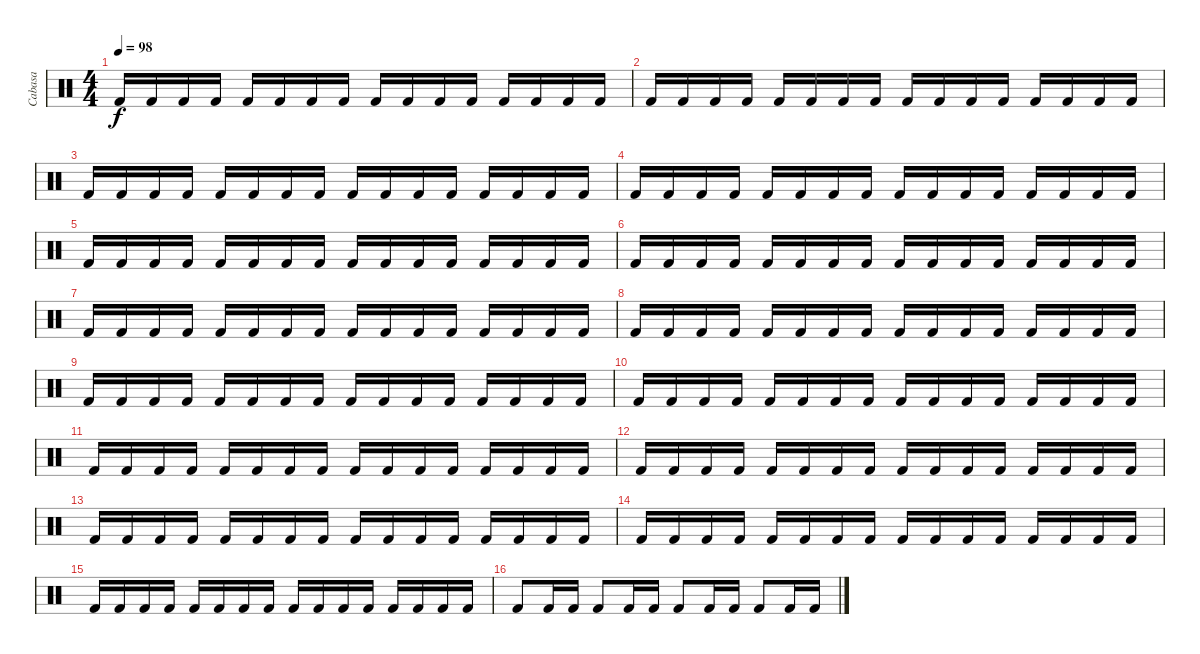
\track ("Cabasa" "Cabasa") {instrument percussion}
\staff {score}
\articulation defaults
\ts (4 4)
\tempo 98
\clef neutral
\ks c "Kick (hit) 2".16{dy f} "Kick (hit) 2".16 "Kick (hit) 2".16 "Kick (hit) 2".16 "Kick (hit) 2".16 "Kick (hit) 2".16 "Kick (hit) 2".16 "Kick (hit) 2".16 "Kick (hit) 2".16 "Kick (hit) 2".16 "Kick (hit) 2".16 "Kick (hit) 2".16 "Kick (hit) 2".16 "Kick (hit) 2".16 "Kick (hit) 2".16 "Kick (hit) 2".16
|
"Kick (hit) 2".16 "Kick (hit) 2".16 "Kick (hit) 2".16 "Kick (hit) 2".16 "Kick (hit) 2".16 "Kick (hit) 2".16 "Kick (hit) 2".16 "Kick (hit) 2".16 "Kick (hit) 2".16 "Kick (hit) 2".16 "Kick (hit) 2".16 "Kick (hit) 2".16 "Kick (hit) 2".16 "Kick (hit) 2".16 "Kick (hit) 2".16 "Kick (hit) 2".16 |
"Kick (hit) 2".16 "Kick (hit) 2".16 "Kick (hit) 2".16 "Kick (hit) 2".16 "Kick (hit) 2".16 "Kick (hit) 2".16 "Kick (hit) 2".16 "Kick (hit) 2".16 "Kick (hit) 2".16 "Kick (hit) 2".16 "Kick (hit) 2".16 "Kick (hit) 2".16 "Kick (hit) 2".16 "Kick (hit) 2".16 "Kick (hit) 2".16 "Kick (hit) 2".16 |
"Kick (hit) 2".16 "Kick (hit) 2".16 "Kick (hit) 2".16 "Kick (hit) 2".16 "Kick (hit) 2".16 "Kick (hit) 2".16 "Kick (hit) 2".16 "Kick (hit) 2".16 "Kick (hit) 2".16 "Kick (hit) 2".16 "Kick (hit) 2".16 "Kick (hit) 2".16 "Kick (hit) 2".16 "Kick (hit) 2".16 "Kick (hit) 2".16 "Kick (hit) 2".16 |
"Kick (hit) 2".16 "Kick (hit) 2".16 "Kick (hit) 2".16 "Kick (hit) 2".16 "Kick (hit) 2".16 "Kick (hit) 2".16 "Kick (hit) 2".16 "Kick (hit) 2".16 "Kick (hit) 2".16 "Kick (hit) 2".16 "Kick (hit) 2".16 "Kick (hit) 2".16 "Kick (hit) 2".16 "Kick (hit) 2".16 "Kick (hit) 2".16 "Kick (hit) 2".16 |
"Kick (hit) 2".16 "Kick (hit) 2".16 "Kick (hit) 2".16 "Kick (hit) 2".16 "Kick (hit) 2".16 "Kick (hit) 2".16 "Kick (hit) 2".16 "Kick (hit) 2".16 "Kick (hit) 2".16 "Kick (hit) 2".16 "Kick (hit) 2".16 "Kick (hit) 2".16 "Kick (hit) 2".16 "Kick (hit) 2".16 "Kick (hit) 2".16 "Kick (hit) 2".16 |
"Kick (hit) 2".16 "Kick (hit) 2".16 "Kick (hit) 2".16 "Kick (hit) 2".16 "Kick (hit) 2".16 "Kick (hit) 2".16 "Kick (hit) 2".16 "Kick (hit) 2".16 "Kick (hit) 2".16 "Kick (hit) 2".16 "Kick (hit) 2".16 "Kick (hit) 2".16 "Kick (hit) 2".16 "Kick (hit) 2".16 "Kick (hit) 2".16 "Kick (hit) 2".16 |
"Kick (hit) 2".16 "Kick (hit) 2".16 "Kick (hit) 2".16 "Kick (hit) 2".16 "Kick (hit) 2".16 "Kick (hit) 2".16 "Kick (hit) 2".16 "Kick (hit) 2".16 "Kick (hit) 2".16 "Kick (hit) 2".16 "Kick (hit) 2".16 "Kick (hit) 2".16 "Kick (hit) 2".16 "Kick (hit) 2".16 "Kick (hit) 2".16 "Kick (hit) 2".16 |
"Kick (hit) 2".16 "Kick (hit) 2".16 "Kick (hit) 2".16 "Kick (hit) 2".16 "Kick (hit) 2".16 "Kick (hit) 2".16 "Kick (hit) 2".16 "Kick (hit) 2".16 "Kick (hit) 2".16 "Kick (hit) 2".16 "Kick (hit) 2".16 "Kick (hit) 2".16 "Kick (hit) 2".16 "Kick (hit) 2".16 "Kick (hit) 2".16 "Kick (hit) 2".16 |
"Kick (hit) 2".16 "Kick (hit) 2".16 "Kick (hit) 2".16 "Kick (hit) 2".16 "Kick (hit) 2".16 "Kick (hit) 2".16 "Kick (hit) 2".16 "Kick (hit) 2".16 "Kick (hit) 2".16 "Kick (hit) 2".16 "Kick (hit) 2".16 "Kick (hit) 2".16 "Kick (hit) 2".16 "Kick (hit) 2".16 "Kick (hit) 2".16 "Kick (hit) 2".16 |
"Kick (hit) 2".16 "Kick (hit) 2".16 "Kick (hit) 2".16 "Kick (hit) 2".16 "Kick (hit) 2".16 "Kick (hit) 2".16 "Kick (hit) 2".16 "Kick (hit) 2".16 "Kick (hit) 2".16 "Kick (hit) 2".16 "Kick (hit) 2".16 "Kick (hit) 2".16 "Kick (hit) 2".16 "Kick (hit) 2".16 "Kick (hit) 2".16 "Kick (hit) 2".16 |
"Kick (hit) 2".16 "Kick (hit) 2".16 "Kick (hit) 2".16 "Kick (hit) 2".16 "Kick (hit) 2".16 "Kick (hit) 2".16 "Kick (hit) 2".16 "Kick (hit) 2".16 "Kick (hit) 2".16 "Kick (hit) 2".16 "Kick (hit) 2".16 "Kick (hit) 2".16 "Kick (hit) 2".16 "Kick (hit) 2".16 "Kick (hit) 2".16 "Kick (hit) 2".16 |
"Kick (hit) 2".16 "Kick (hit) 2".16 "Kick (hit) 2".16 "Kick (hit) 2".16 "Kick (hit) 2".16 "Kick (hit) 2".16 "Kick (hit) 2".16 "Kick (hit) 2".16 "Kick (hit) 2".16 "Kick (hit) 2".16 "Kick (hit) 2".16 "Kick (hit) 2".16 "Kick (hit) 2".16 "Kick (hit) 2".16 "Kick (hit) 2".16 "Kick (hit) 2".16 |
"Kick (hit) 2".16 "Kick (hit) 2".16 "Kick (hit) 2".16 "Kick (hit) 2".16 "Kick (hit) 2".16 "Kick (hit) 2".16 "Kick (hit) 2".16 "Kick (hit) 2".16 "Kick (hit) 2".16 "Kick (hit) 2".16 "Kick (hit) 2".16 "Kick (hit) 2".16 "Kick (hit) 2".16 "Kick (hit) 2".16 "Kick (hit) 2".16 "Kick (hit) 2".16 |
"Kick (hit) 2".16 "Kick (hit) 2".16 "Kick (hit) 2".16 "Kick (hit) 2".16 "Kick (hit) 2".16 "Kick (hit) 2".16 "Kick (hit) 2".16 "Kick (hit) 2".16 "Kick (hit) 2".16 "Kick (hit) 2".16 "Kick (hit) 2".16 "Kick (hit) 2".16 "Kick (hit) 2".16 "Kick (hit) 2".16 "Kick (hit) 2".16 "Kick (hit) 2".16 |
"Kick (hit) 2".8 "Kick (hit) 2".16 "Kick (hit) 2".16 "Kick (hit) 2".8 "Kick (hit) 2".16 "Kick (hit) 2".16 "Kick (hit) 2".8 "Kick (hit) 2".16 "Kick (hit) 2".16 "Kick (hit) 2".8 "Kick (hit) 2".16 "Kick (hit) 2".16
